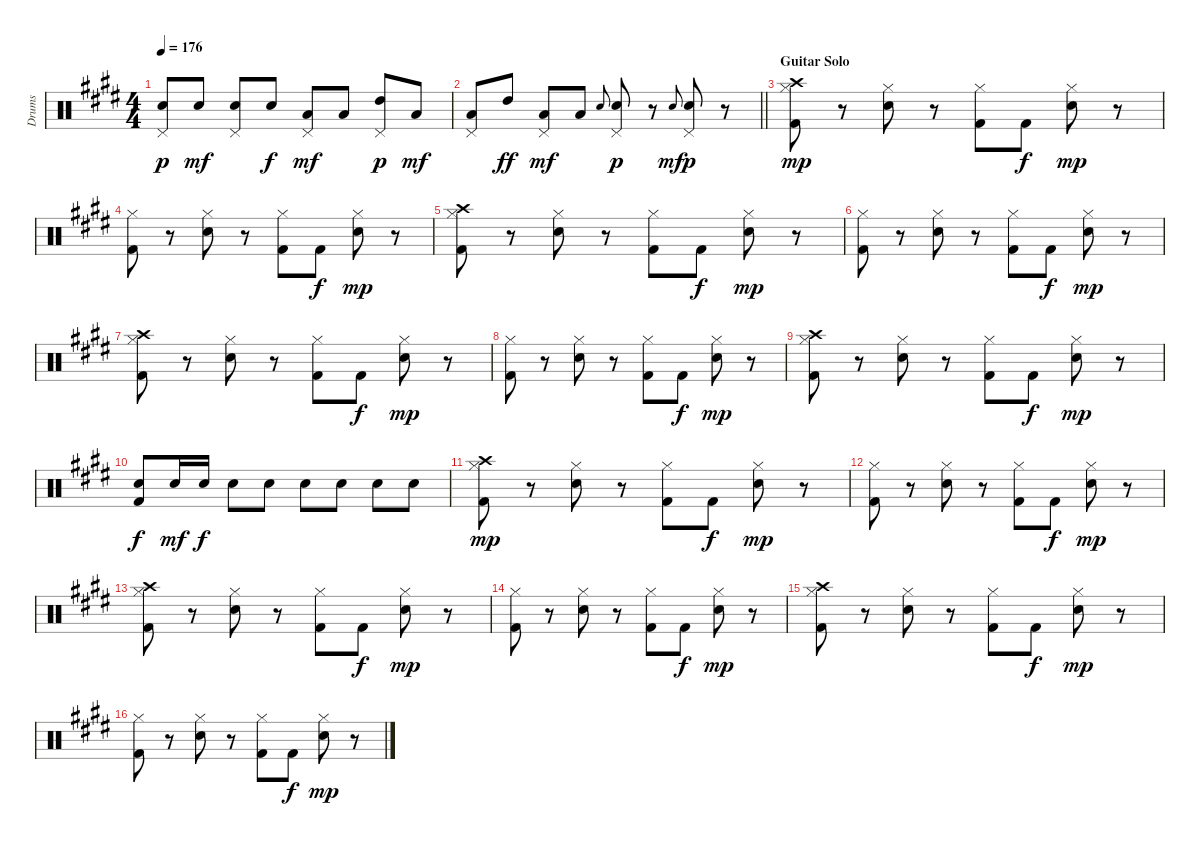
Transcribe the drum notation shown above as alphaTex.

\track ("Drums" "Drums") {instrument percussion}
\staff {score}
\articulation defaults
\ts (4 4)
\tempo 176
\clef neutral
\ks e
("Pedal Hi-Hat (hit)" "Snare (hit) 2").8{dy p} "Snare (hit) 2".8{dy mf} ("Pedal Hi-Hat (hit)" "Snare (hit) 2").8 "Snare (hit) 2".8{dy f} ("Pedal Hi-Hat (hit)" "Low Tom (hit)").8{dy mf} "Low Tom (hit)".8 ("Pedal Hi-Hat (hit)" "High Tom (hit)").8{dy p} "Low Tom (hit)".8{dy mf} |
\barLineRight lightlight
("Pedal Hi-Hat (hit)" "Low Tom (hit)").8 "High Tom (hit)".8{dy ff} ("Pedal Hi-Hat (hit)" "Low Tom (hit)").8{dy mf} "Low Tom (hit)".8 "Electric Snare (hit)".8{gr onbeat} ("Pedal Hi-Hat (hit)" "Electric Snare (hit)").8{dy p} r.8 "Electric Snare (hit)".8{gr onbeat dy mf} ("Pedal Hi-Hat (hit)" "Electric Snare (hit)").8{dy p} r.8 |
\section ("" "Guitar Solo")
("Crash high (hit)" "Hi-Hat (closed)" "Kick (hit) 2").8{dy mp} r.8 ("Hi-Hat (closed)" "Snare (hit) 2").8 r.8 ("Hi-Hat (closed)" "Kick (hit) 2").8 "Kick (hit) 2".8{dy f} ("Hi-Hat (closed)" "Snare (hit) 2").8{dy mp} r.8 |
("Hi-Hat (closed)" "Kick (hit) 2").8 r.8 ("Hi-Hat (closed)" "Snare (hit) 2").8 r.8 ("Hi-Hat (closed)" "Kick (hit) 2").8 "Kick (hit) 2".8{dy f} ("Hi-Hat (closed)" "Snare (hit) 2").8{dy mp} r.8 |
("Crash high (hit)" "Hi-Hat (closed)" "Kick (hit) 2").8 r.8 ("Hi-Hat (closed)" "Snare (hit) 2").8 r.8 ("Hi-Hat (closed)" "Kick (hit) 2").8 "Kick (hit) 2".8{dy f} ("Hi-Hat (closed)" "Snare (hit) 2").8{dy mp} r.8 |
("Hi-Hat (closed)" "Kick (hit) 2").8 r.8 ("Hi-Hat (closed)" "Snare (hit) 2").8 r.8 ("Hi-Hat (closed)" "Kick (hit) 2").8 "Kick (hit) 2".8{dy f} ("Hi-Hat (closed)" "Snare (hit) 2").8{dy mp} r.8 |
("Crash high (hit)" "Hi-Hat (closed)" "Kick (hit) 2").8 r.8 ("Hi-Hat (closed)" "Snare (hit) 2").8 r.8 ("Hi-Hat (closed)" "Kick (hit) 2").8 "Kick (hit) 2".8{dy f} ("Hi-Hat (closed)" "Snare (hit) 2").8{dy mp} r.8 |
("Hi-Hat (closed)" "Kick (hit) 2").8 r.8 ("Hi-Hat (closed)" "Snare (hit) 2").8 r.8 ("Hi-Hat (closed)" "Kick (hit) 2").8 "Kick (hit) 2".8{dy f} ("Hi-Hat (closed)" "Snare (hit) 2").8{dy mp} r.8 |
("Crash high (hit)" "Hi-Hat (closed)" "Kick (hit) 2").8 r.8 ("Hi-Hat (closed)" "Snare (hit) 2").8 r.8 ("Hi-Hat (closed)" "Kick (hit) 2").8 "Kick (hit) 2".8{dy f} ("Hi-Hat (closed)" "Snare (hit) 2").8{dy mp} r.8 |
("Snare (hit) 2" "Kick (hit) 2").8{dy f} "Snare (hit) 2".16{dy mf} "Snare (hit) 2".16{dy f} "Snare (hit) 2".8 "Snare (hit) 2".8 "Snare (hit) 2".8 "Snare (hit) 2".8 "Snare (hit) 2".8 "Snare (hit) 2".8 |
("Crash high (hit)" "Hi-Hat (closed)" "Kick (hit) 2").8{dy mp} r.8 ("Hi-Hat (closed)" "Snare (hit) 2").8 r.8 ("Hi-Hat (closed)" "Kick (hit) 2").8 "Kick (hit) 2".8{dy f} ("Hi-Hat (closed)" "Snare (hit) 2").8{dy mp} r.8 |
("Hi-Hat (closed)" "Kick (hit) 2").8 r.8 ("Hi-Hat (closed)" "Snare (hit) 2").8 r.8 ("Hi-Hat (closed)" "Kick (hit) 2").8 "Kick (hit) 2".8{dy f} ("Hi-Hat (closed)" "Snare (hit) 2").8{dy mp} r.8 |
("Crash high (hit)" "Hi-Hat (closed)" "Kick (hit) 2").8 r.8 ("Hi-Hat (closed)" "Snare (hit) 2").8 r.8 ("Hi-Hat (closed)" "Kick (hit) 2").8 "Kick (hit) 2".8{dy f} ("Hi-Hat (closed)" "Snare (hit) 2").8{dy mp} r.8 |
("Hi-Hat (closed)" "Kick (hit) 2").8 r.8 ("Hi-Hat (closed)" "Snare (hit) 2").8 r.8 ("Hi-Hat (closed)" "Kick (hit) 2").8 "Kick (hit) 2".8{dy f} ("Hi-Hat (closed)" "Snare (hit) 2").8{dy mp} r.8 |
("Crash high (hit)" "Hi-Hat (closed)" "Kick (hit) 2").8 r.8 ("Hi-Hat (closed)" "Snare (hit) 2").8 r.8 ("Hi-Hat (closed)" "Kick (hit) 2").8 "Kick (hit) 2".8{dy f} ("Hi-Hat (closed)" "Snare (hit) 2").8{dy mp} r.8 |
("Hi-Hat (closed)" "Kick (hit) 2").8 r.8 ("Hi-Hat (closed)" "Snare (hit) 2").8 r.8 ("Hi-Hat (closed)" "Kick (hit) 2").8 "Kick (hit) 2".8{dy f} ("Hi-Hat (closed)" "Snare (hit) 2").8{dy mp} r.8
